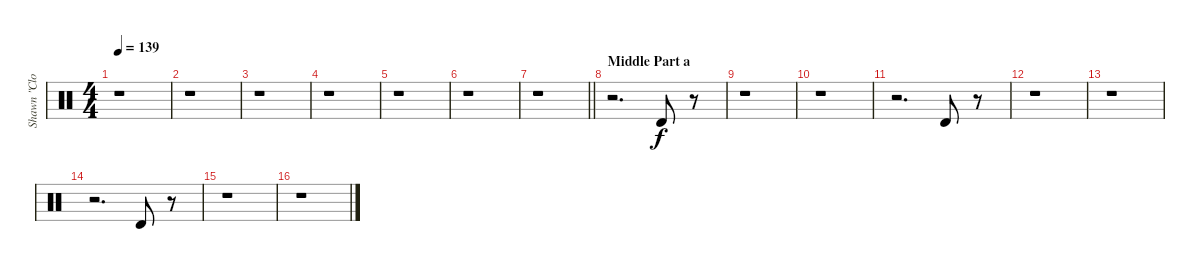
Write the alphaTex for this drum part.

\track ("Shawn \"Clown\" Crahan & Chris Fehn" "Shawn \"Clo") {instrument percussion}
\staff {score}
\articulation defaults
\ts (4 4)
\tempo 139
\clef neutral
\ks c
r.1{dy f} |
r.1 |
r.1 |
r.1 |
r.1 |
r.1 |
\barLineRight lightlight
r.1 |
\section ("" "Middle Part a")
r.2{d} "Timbale high (hit)".8 r.8 |
r.1 |
r.1 |
r.2{d} "Timbale high (hit)".8 r.8 |
r.1 |
r.1 |
r.2{d} "Timbale high (hit)".8 r.8 |
r.1 |
r.1
